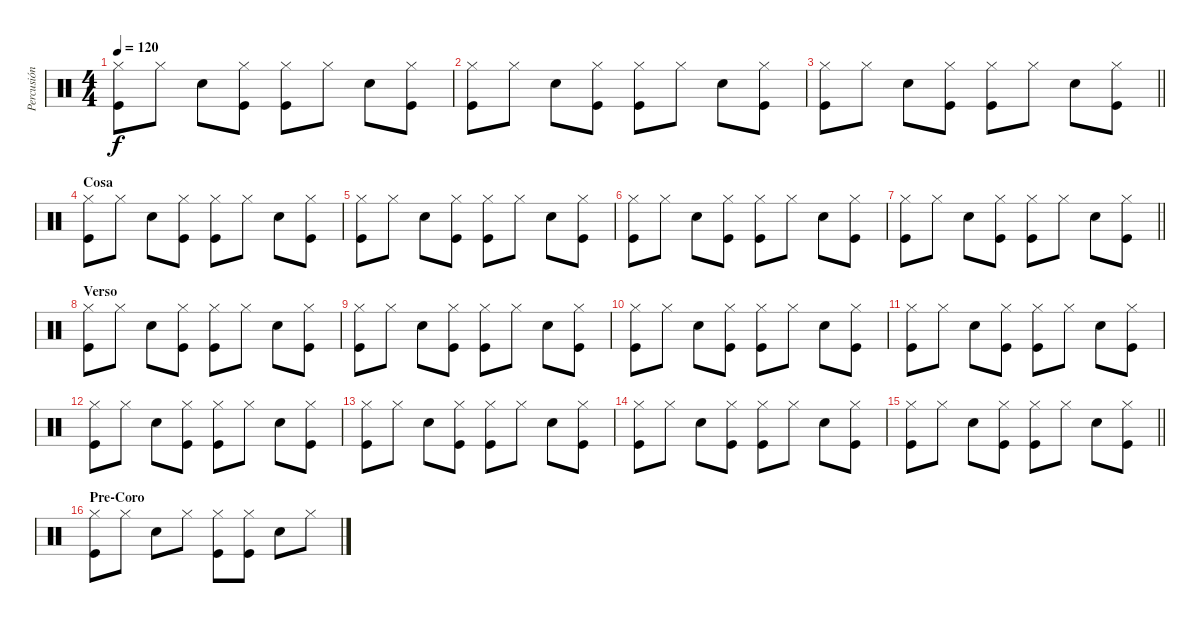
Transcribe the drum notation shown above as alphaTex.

\track ("Percusión" "Percusión") {instrument percussion}
\staff {score}
\articulation defaults
\ts (4 4)
\tempo 120
\clef neutral
\ks c
("Kick (hit)" "Hi-Hat (closed)").8{dy f} "Hi-Hat (closed)".8 "Electric Snare (hit)".8 ("Kick (hit)" "Hi-Hat (closed)").8 ("Kick (hit)" "Hi-Hat (closed)").8 "Hi-Hat (closed)".8 "Electric Snare (hit)".8 ("Kick (hit)" "Hi-Hat (closed)").8 |
("Kick (hit)" "Hi-Hat (closed)").8 "Hi-Hat (closed)".8 "Electric Snare (hit)".8 ("Kick (hit)" "Hi-Hat (closed)").8 ("Kick (hit)" "Hi-Hat (closed)").8 "Hi-Hat (closed)".8 "Electric Snare (hit)".8 ("Kick (hit)" "Hi-Hat (closed)").8 |
\barLineRight lightlight
("Kick (hit)" "Hi-Hat (closed)").8 "Hi-Hat (closed)".8 "Electric Snare (hit)".8 ("Kick (hit)" "Hi-Hat (closed)").8 ("Kick (hit)" "Hi-Hat (closed)").8 "Hi-Hat (closed)".8 "Electric Snare (hit)".8 ("Kick (hit)" "Hi-Hat (closed)").8 |
\section ("" "Cosa")
("Kick (hit)" "Hi-Hat (closed)").8 "Hi-Hat (closed)".8 "Electric Snare (hit)".8 ("Kick (hit)" "Hi-Hat (closed)").8 ("Kick (hit)" "Hi-Hat (closed)").8 "Hi-Hat (closed)".8 "Electric Snare (hit)".8 ("Kick (hit)" "Hi-Hat (closed)").8 |
("Kick (hit)" "Hi-Hat (closed)").8 "Hi-Hat (closed)".8 "Electric Snare (hit)".8 ("Kick (hit)" "Hi-Hat (closed)").8 ("Kick (hit)" "Hi-Hat (closed)").8 "Hi-Hat (closed)".8 "Electric Snare (hit)".8 ("Kick (hit)" "Hi-Hat (closed)").8 |
("Kick (hit)" "Hi-Hat (closed)").8 "Hi-Hat (closed)".8 "Electric Snare (hit)".8 ("Kick (hit)" "Hi-Hat (closed)").8 ("Kick (hit)" "Hi-Hat (closed)").8 "Hi-Hat (closed)".8 "Electric Snare (hit)".8 ("Kick (hit)" "Hi-Hat (closed)").8 |
\barLineRight lightlight
("Kick (hit)" "Hi-Hat (closed)").8 "Hi-Hat (closed)".8 "Electric Snare (hit)".8 ("Kick (hit)" "Hi-Hat (closed)").8 ("Kick (hit)" "Hi-Hat (closed)").8 "Hi-Hat (closed)".8 "Electric Snare (hit)".8 ("Kick (hit)" "Hi-Hat (closed)").8 |
\section ("" "Verso")
("Kick (hit)" "Hi-Hat (closed)").8 "Hi-Hat (closed)".8 "Electric Snare (hit)".8 ("Kick (hit)" "Hi-Hat (closed)").8 ("Kick (hit)" "Hi-Hat (closed)").8 "Hi-Hat (closed)".8 "Electric Snare (hit)".8 ("Kick (hit)" "Hi-Hat (closed)").8 |
("Kick (hit)" "Hi-Hat (closed)").8 "Hi-Hat (closed)".8 "Electric Snare (hit)".8 ("Kick (hit)" "Hi-Hat (closed)").8 ("Kick (hit)" "Hi-Hat (closed)").8 "Hi-Hat (closed)".8 "Electric Snare (hit)".8 ("Kick (hit)" "Hi-Hat (closed)").8 |
("Kick (hit)" "Hi-Hat (closed)").8 "Hi-Hat (closed)".8 "Electric Snare (hit)".8 ("Kick (hit)" "Hi-Hat (closed)").8 ("Kick (hit)" "Hi-Hat (closed)").8 "Hi-Hat (closed)".8 "Electric Snare (hit)".8 ("Kick (hit)" "Hi-Hat (closed)").8 |
("Kick (hit)" "Hi-Hat (closed)").8 "Hi-Hat (closed)".8 "Electric Snare (hit)".8 ("Kick (hit)" "Hi-Hat (closed)").8 ("Kick (hit)" "Hi-Hat (closed)").8 "Hi-Hat (closed)".8 "Electric Snare (hit)".8 ("Kick (hit)" "Hi-Hat (closed)").8 |
("Kick (hit)" "Hi-Hat (closed)").8 "Hi-Hat (closed)".8 "Electric Snare (hit)".8 ("Kick (hit)" "Hi-Hat (closed)").8 ("Kick (hit)" "Hi-Hat (closed)").8 "Hi-Hat (closed)".8 "Electric Snare (hit)".8 ("Kick (hit)" "Hi-Hat (closed)").8 |
("Kick (hit)" "Hi-Hat (closed)").8 "Hi-Hat (closed)".8 "Electric Snare (hit)".8 ("Kick (hit)" "Hi-Hat (closed)").8 ("Kick (hit)" "Hi-Hat (closed)").8 "Hi-Hat (closed)".8 "Electric Snare (hit)".8 ("Kick (hit)" "Hi-Hat (closed)").8 |
("Kick (hit)" "Hi-Hat (closed)").8 "Hi-Hat (closed)".8 "Electric Snare (hit)".8 ("Kick (hit)" "Hi-Hat (closed)").8 ("Kick (hit)" "Hi-Hat (closed)").8 "Hi-Hat (closed)".8 "Electric Snare (hit)".8 ("Kick (hit)" "Hi-Hat (closed)").8 |
\barLineRight lightlight
("Kick (hit)" "Hi-Hat (closed)").8 "Hi-Hat (closed)".8 "Electric Snare (hit)".8 ("Kick (hit)" "Hi-Hat (closed)").8 ("Kick (hit)" "Hi-Hat (closed)").8 "Hi-Hat (closed)".8 "Electric Snare (hit)".8 ("Kick (hit)" "Hi-Hat (closed)").8 |
\section ("" "Pre-Coro")
("Kick (hit)" "Hi-Hat (closed)").8 "Hi-Hat (closed)".8 "Electric Snare (hit)".8 "Hi-Hat (closed)".8 ("Kick (hit)" "Hi-Hat (closed)").8 ("Kick (hit)" "Hi-Hat (closed)").8 "Electric Snare (hit)".8 "Hi-Hat (closed)".8
